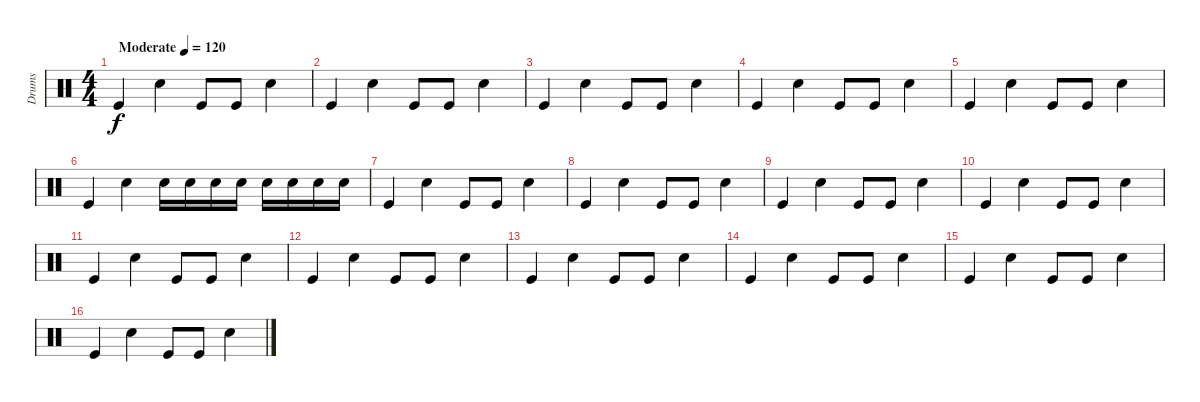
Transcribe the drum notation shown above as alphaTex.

\track ("Drums" "Drums") {instrument percussion}
\staff {score}
\articulation defaults
\ts (4 4)
\tempo (120 "Moderate")
\clef neutral
\ks c "Kick (hit)".4{dy f} "Snare (hit) 2".4 "Kick (hit)".8 "Kick (hit)".8 "Snare (hit) 2".4
|
"Kick (hit)".4 "Snare (hit) 2".4 "Kick (hit)".8 "Kick (hit)".8 "Snare (hit) 2".4 |
"Kick (hit)".4 "Snare (hit) 2".4 "Kick (hit)".8 "Kick (hit)".8 "Snare (hit) 2".4 |
"Kick (hit)".4 "Snare (hit) 2".4 "Kick (hit)".8 "Kick (hit)".8 "Snare (hit) 2".4 |
"Kick (hit)".4 "Snare (hit) 2".4 "Kick (hit)".8 "Kick (hit)".8 "Snare (hit) 2".4 |
"Kick (hit)".4 "Snare (hit) 2".4 "Snare (hit) 2".16 "Snare (hit) 2".16 "Snare (hit) 2".16 "Snare (hit) 2".16 "Snare (hit) 2".16 "Snare (hit) 2".16 "Snare (hit) 2".16 "Snare (hit) 2".16 |
"Kick (hit)".4 "Snare (hit) 2".4 "Kick (hit)".8 "Kick (hit)".8 "Snare (hit) 2".4 |
"Kick (hit)".4 "Snare (hit) 2".4 "Kick (hit)".8 "Kick (hit)".8 "Snare (hit) 2".4 |
"Kick (hit)".4 "Snare (hit) 2".4 "Kick (hit)".8 "Kick (hit)".8 "Snare (hit) 2".4 |
"Kick (hit)".4 "Snare (hit) 2".4 "Kick (hit)".8 "Kick (hit)".8 "Snare (hit) 2".4 |
"Kick (hit)".4 "Snare (hit) 2".4 "Kick (hit)".8 "Kick (hit)".8 "Snare (hit) 2".4 |
"Kick (hit)".4 "Snare (hit) 2".4 "Kick (hit)".8 "Kick (hit)".8 "Snare (hit) 2".4 |
"Kick (hit)".4 "Snare (hit) 2".4 "Kick (hit)".8 "Kick (hit)".8 "Snare (hit) 2".4 |
"Kick (hit)".4 "Snare (hit) 2".4 "Kick (hit)".8 "Kick (hit)".8 "Snare (hit) 2".4 |
"Kick (hit)".4 "Snare (hit) 2".4 "Kick (hit)".8 "Kick (hit)".8 "Snare (hit) 2".4 |
"Kick (hit)".4 "Snare (hit) 2".4 "Kick (hit)".8 "Kick (hit)".8 "Snare (hit) 2".4
